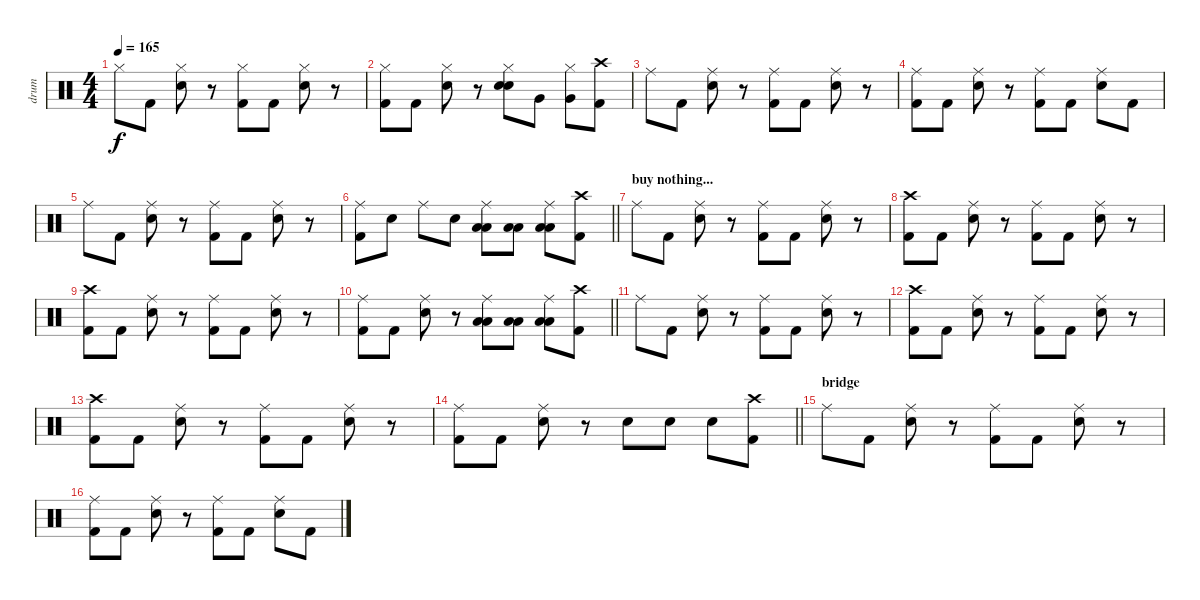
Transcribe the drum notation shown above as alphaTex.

\track ("drum" "drum") {instrument percussion}
\staff {score}
\articulation defaults
\ts (4 4)
\tempo 165
\clef neutral
\ks c "Hi-Hat (closed)".8{dy f} "Kick (hit) 2".8
("Hi-Hat (closed)" "Snare (hit) 2").8 r.8 ("Hi-Hat (closed)" "Kick (hit) 2").8 "Kick (hit) 2".8 ("Hi-Hat (closed)" "Snare (hit) 2").8 r.8 |
("Hi-Hat (closed)" "Kick (hit) 2").8 "Kick (hit) 2".8 ("Hi-Hat (closed)" "Snare (hit) 2").8 r.8 ("Hi-Hat (closed)" "Snare (hit) 2" "Snare (hit) 2").8 "Very Low Tom (hit)".8 ("Hi-Hat (closed)" "Very Low Tom (hit)").8 ("Crash high (hit)" "Kick (hit) 2").8 |
"Ride (middle)".8 "Kick (hit) 2".8 ("Ride (middle)" "Snare (hit) 2").8 r.8 ("Ride (middle)" "Kick (hit) 2").8 "Kick (hit) 2".8 ("Ride (middle)" "Snare (hit) 2").8 r.8 |
("Ride (middle)" "Kick (hit) 2").8 "Kick (hit) 2".8 ("Ride (middle)" "Snare (hit) 2").8 r.8 ("Ride (middle)" "Kick (hit) 2").8 "Kick (hit) 2".8 ("Ride (middle)" "Snare (hit) 2").8 "Kick (hit) 2".8 |
"Ride (middle)".8 "Kick (hit) 2".8 ("Ride (middle)" "Snare (hit) 2").8 r.8 ("Ride (middle)" "Kick (hit) 2").8 "Kick (hit) 2".8 ("Ride (middle)" "Snare (hit) 2").8 r.8 |
\barLineRight lightlight
("Ride (middle)" "Kick (hit) 2").8 "Snare (hit) 2".8 "Ride (middle)".8 "Snare (hit) 2".8 ("Ride (middle)" "Low Tom (hit)" "Low Floor Tom (hit)").8 ("Low Tom (hit)" "Low Floor Tom (hit)").8 ("Ride (middle)" "Low Tom (hit)" "Low Floor Tom (hit)").8 ("Crash high (hit)" "Kick (hit) 2").8 |
\section ("" "buy nothing...")
"Ride (middle)".8 "Kick (hit) 2".8 ("Ride (middle)" "Snare (hit) 2").8 r.8 ("Ride (middle)" "Kick (hit) 2").8 "Kick (hit) 2".8 ("Ride (middle)" "Snare (hit) 2").8 r.8 |
("Crash high (hit)" "Kick (hit) 2").8 "Kick (hit) 2".8 ("Ride (middle)" "Snare (hit) 2").8 r.8 ("Ride (middle)" "Kick (hit) 2").8 "Kick (hit) 2".8 ("Ride (middle)" "Snare (hit) 2").8 r.8 |
("Crash high (hit)" "Kick (hit) 2").8 "Kick (hit) 2".8 ("Ride (middle)" "Snare (hit) 2").8 r.8 ("Ride (middle)" "Kick (hit) 2").8 "Kick (hit) 2".8 ("Ride (middle)" "Snare (hit) 2").8 r.8 |
\barLineRight lightlight
("Ride (middle)" "Kick (hit) 2").8 "Kick (hit) 2".8 ("Ride (middle)" "Snare (hit) 2").8 r.8 ("Ride (middle)" "Low Tom (hit)" "Low Floor Tom (hit)").8 ("Low Tom (hit)" "Low Floor Tom (hit)").8 ("Ride (middle)" "Low Tom (hit)" "Low Floor Tom (hit)").8 ("Crash high (hit)" "Kick (hit) 2").8 |
"Ride (middle)".8 "Kick (hit) 2".8 ("Ride (middle)" "Snare (hit) 2").8 r.8 ("Ride (middle)" "Kick (hit) 2").8 "Kick (hit) 2".8 ("Ride (middle)" "Snare (hit) 2").8 r.8 |
("Crash high (hit)" "Kick (hit) 2").8 "Kick (hit) 2".8 ("Ride (middle)" "Snare (hit) 2").8 r.8 ("Ride (middle)" "Kick (hit) 2").8 "Kick (hit) 2".8 ("Ride (middle)" "Snare (hit) 2").8 r.8 |
("Crash high (hit)" "Kick (hit) 2").8 "Kick (hit) 2".8 ("Ride (middle)" "Snare (hit) 2").8 r.8 ("Ride (middle)" "Kick (hit) 2").8 "Kick (hit) 2".8 ("Ride (middle)" "Snare (hit) 2").8 r.8 |
\barLineRight lightlight
("Ride (middle)" "Kick (hit) 2").8 "Kick (hit) 2".8 ("Ride (middle)" "Snare (hit) 2").8 r.8 "Snare (hit) 2".8 "Snare (hit) 2".8 "Snare (hit) 2".8 ("Crash high (hit)" "Kick (hit) 2").8 |
\section ("" "bridge")
"Ride (middle)".8 "Kick (hit) 2".8 ("Ride (middle)" "Snare (hit) 2").8 r.8 ("Ride (middle)" "Kick (hit) 2").8 "Kick (hit) 2".8 ("Ride (middle)" "Snare (hit) 2").8 r.8 |
("Ride (middle)" "Kick (hit) 2").8 "Kick (hit) 2".8 ("Ride (middle)" "Snare (hit) 2").8 r.8 ("Ride (middle)" "Kick (hit) 2").8 "Kick (hit) 2".8 ("Ride (middle)" "Snare (hit) 2").8 "Kick (hit) 2".8
